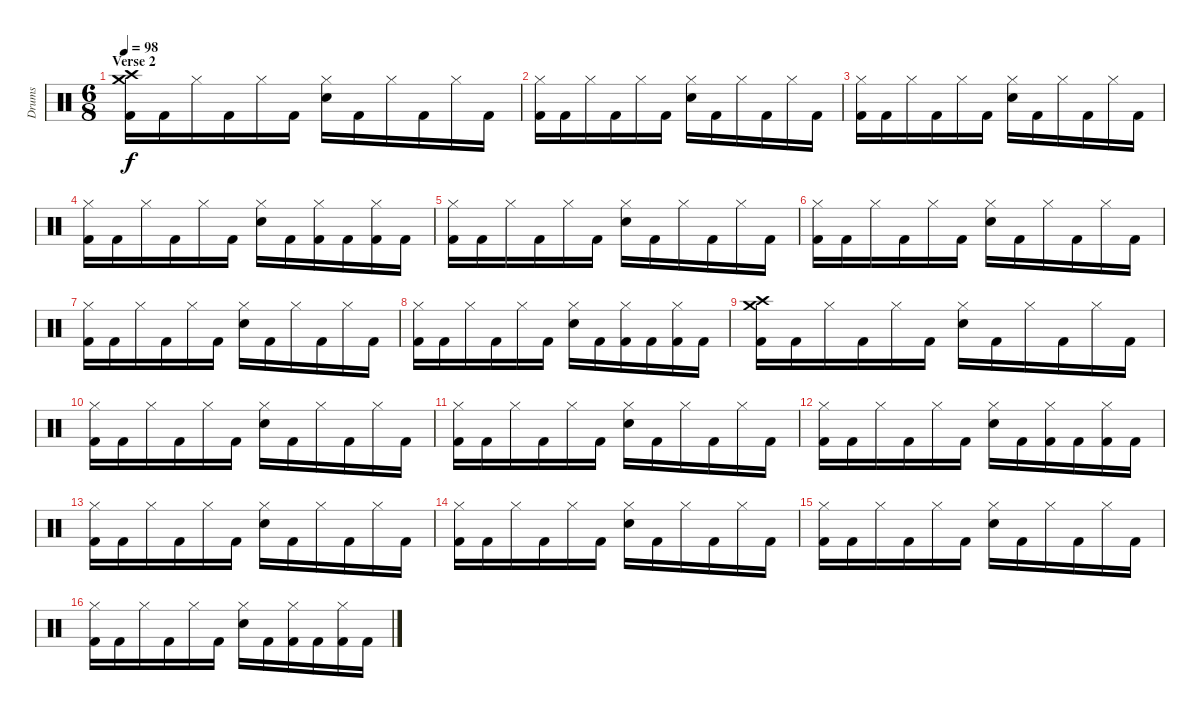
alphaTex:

\track ("Drums" "Drums") {instrument percussion}
\staff {score}
\articulation defaults
\ts (6 8)
\section ("" "Verse 2")
\tempo 98
\clef neutral
\ks c
("Crash high (hit)" "Crash medium (hit)" "Kick (hit) 2").16{dy f} "Kick (hit) 2".16 "Hi-Hat (closed)".16 "Kick (hit) 2".16 "Hi-Hat (closed)".16 "Kick (hit) 2".16 ("Hi-Hat (closed)" "Electric Snare (hit)").16 "Kick (hit) 2".16 "Hi-Hat (closed)".16 "Kick (hit) 2".16 "Hi-Hat (closed)".16 "Kick (hit) 2".16 |
("Hi-Hat (closed)" "Kick (hit) 2").16 "Kick (hit) 2".16 "Hi-Hat (closed)".16 "Kick (hit) 2".16 "Hi-Hat (closed)".16 "Kick (hit) 2".16 ("Hi-Hat (closed)" "Electric Snare (hit)").16 "Kick (hit) 2".16 "Hi-Hat (closed)".16 "Kick (hit) 2".16 "Hi-Hat (closed)".16 "Kick (hit) 2".16 |
("Hi-Hat (closed)" "Kick (hit) 2").16 "Kick (hit) 2".16 "Hi-Hat (closed)".16 "Kick (hit) 2".16 "Hi-Hat (closed)".16 "Kick (hit) 2".16 ("Hi-Hat (closed)" "Electric Snare (hit)").16 "Kick (hit) 2".16 "Hi-Hat (closed)".16 "Kick (hit) 2".16 "Hi-Hat (closed)".16 "Kick (hit) 2".16 |
("Hi-Hat (closed)" "Kick (hit) 2").16 "Kick (hit) 2".16 "Hi-Hat (closed)".16 "Kick (hit) 2".16 "Hi-Hat (closed)".16 "Kick (hit) 2".16 ("Hi-Hat (closed)" "Electric Snare (hit)").16 "Kick (hit) 2".16 ("Hi-Hat (closed)" "Kick (hit) 2").16 "Kick (hit) 2".16 ("Hi-Hat (closed)" "Kick (hit) 2").16 "Kick (hit) 2".16 |
("Hi-Hat (closed)" "Kick (hit) 2").16 "Kick (hit) 2".16 "Hi-Hat (closed)".16 "Kick (hit) 2".16 "Hi-Hat (closed)".16 "Kick (hit) 2".16 ("Hi-Hat (closed)" "Electric Snare (hit)").16 "Kick (hit) 2".16 "Hi-Hat (closed)".16 "Kick (hit) 2".16 "Hi-Hat (closed)".16 "Kick (hit) 2".16 |
("Hi-Hat (closed)" "Kick (hit) 2").16 "Kick (hit) 2".16 "Hi-Hat (closed)".16 "Kick (hit) 2".16 "Hi-Hat (closed)".16 "Kick (hit) 2".16 ("Hi-Hat (closed)" "Electric Snare (hit)").16 "Kick (hit) 2".16 "Hi-Hat (closed)".16 "Kick (hit) 2".16 "Hi-Hat (closed)".16 "Kick (hit) 2".16 |
("Hi-Hat (closed)" "Kick (hit) 2").16 "Kick (hit) 2".16 "Hi-Hat (closed)".16 "Kick (hit) 2".16 "Hi-Hat (closed)".16 "Kick (hit) 2".16 ("Hi-Hat (closed)" "Electric Snare (hit)").16 "Kick (hit) 2".16 "Hi-Hat (closed)".16 "Kick (hit) 2".16 "Hi-Hat (closed)".16 "Kick (hit) 2".16 |
("Hi-Hat (closed)" "Kick (hit) 2").16 "Kick (hit) 2".16 "Hi-Hat (closed)".16 "Kick (hit) 2".16 "Hi-Hat (closed)".16 "Kick (hit) 2".16 ("Hi-Hat (closed)" "Electric Snare (hit)").16 "Kick (hit) 2".16 ("Hi-Hat (closed)" "Kick (hit) 2").16 "Kick (hit) 2".16 ("Hi-Hat (closed)" "Kick (hit) 2").16 "Kick (hit) 2".16 |
("Crash high (hit)" "Crash medium (hit)" "Kick (hit) 2").16 "Kick (hit) 2".16 "Hi-Hat (closed)".16 "Kick (hit) 2".16 "Hi-Hat (closed)".16 "Kick (hit) 2".16 ("Hi-Hat (closed)" "Electric Snare (hit)").16 "Kick (hit) 2".16 "Hi-Hat (closed)".16 "Kick (hit) 2".16 "Hi-Hat (closed)".16 "Kick (hit) 2".16 |
("Hi-Hat (closed)" "Kick (hit) 2").16 "Kick (hit) 2".16 "Hi-Hat (closed)".16 "Kick (hit) 2".16 "Hi-Hat (closed)".16 "Kick (hit) 2".16 ("Hi-Hat (closed)" "Electric Snare (hit)").16 "Kick (hit) 2".16 "Hi-Hat (closed)".16 "Kick (hit) 2".16 "Hi-Hat (closed)".16 "Kick (hit) 2".16 |
("Hi-Hat (closed)" "Kick (hit) 2").16 "Kick (hit) 2".16 "Hi-Hat (closed)".16 "Kick (hit) 2".16 "Hi-Hat (closed)".16 "Kick (hit) 2".16 ("Hi-Hat (closed)" "Electric Snare (hit)").16 "Kick (hit) 2".16 "Hi-Hat (closed)".16 "Kick (hit) 2".16 "Hi-Hat (closed)".16 "Kick (hit) 2".16 |
("Hi-Hat (closed)" "Kick (hit) 2").16 "Kick (hit) 2".16 "Hi-Hat (closed)".16 "Kick (hit) 2".16 "Hi-Hat (closed)".16 "Kick (hit) 2".16 ("Hi-Hat (closed)" "Electric Snare (hit)").16 "Kick (hit) 2".16 ("Hi-Hat (closed)" "Kick (hit) 2").16 "Kick (hit) 2".16 ("Hi-Hat (closed)" "Kick (hit) 2").16 "Kick (hit) 2".16 |
("Hi-Hat (closed)" "Kick (hit) 2").16 "Kick (hit) 2".16 "Hi-Hat (closed)".16 "Kick (hit) 2".16 "Hi-Hat (closed)".16 "Kick (hit) 2".16 ("Hi-Hat (closed)" "Electric Snare (hit)").16 "Kick (hit) 2".16 "Hi-Hat (closed)".16 "Kick (hit) 2".16 "Hi-Hat (closed)".16 "Kick (hit) 2".16 |
("Hi-Hat (closed)" "Kick (hit) 2").16 "Kick (hit) 2".16 "Hi-Hat (closed)".16 "Kick (hit) 2".16 "Hi-Hat (closed)".16 "Kick (hit) 2".16 ("Hi-Hat (closed)" "Electric Snare (hit)").16 "Kick (hit) 2".16 "Hi-Hat (closed)".16 "Kick (hit) 2".16 "Hi-Hat (closed)".16 "Kick (hit) 2".16 |
("Hi-Hat (closed)" "Kick (hit) 2").16 "Kick (hit) 2".16 "Hi-Hat (closed)".16 "Kick (hit) 2".16 "Hi-Hat (closed)".16 "Kick (hit) 2".16 ("Hi-Hat (closed)" "Electric Snare (hit)").16 "Kick (hit) 2".16 "Hi-Hat (closed)".16 "Kick (hit) 2".16 "Hi-Hat (closed)".16 "Kick (hit) 2".16 |
("Hi-Hat (closed)" "Kick (hit) 2").16 "Kick (hit) 2".16 "Hi-Hat (closed)".16 "Kick (hit) 2".16 "Hi-Hat (closed)".16 "Kick (hit) 2".16 ("Hi-Hat (closed)" "Electric Snare (hit)").16 "Kick (hit) 2".16 ("Hi-Hat (closed)" "Kick (hit) 2").16 "Kick (hit) 2".16 ("Hi-Hat (closed)" "Kick (hit) 2").16 "Kick (hit) 2".16
